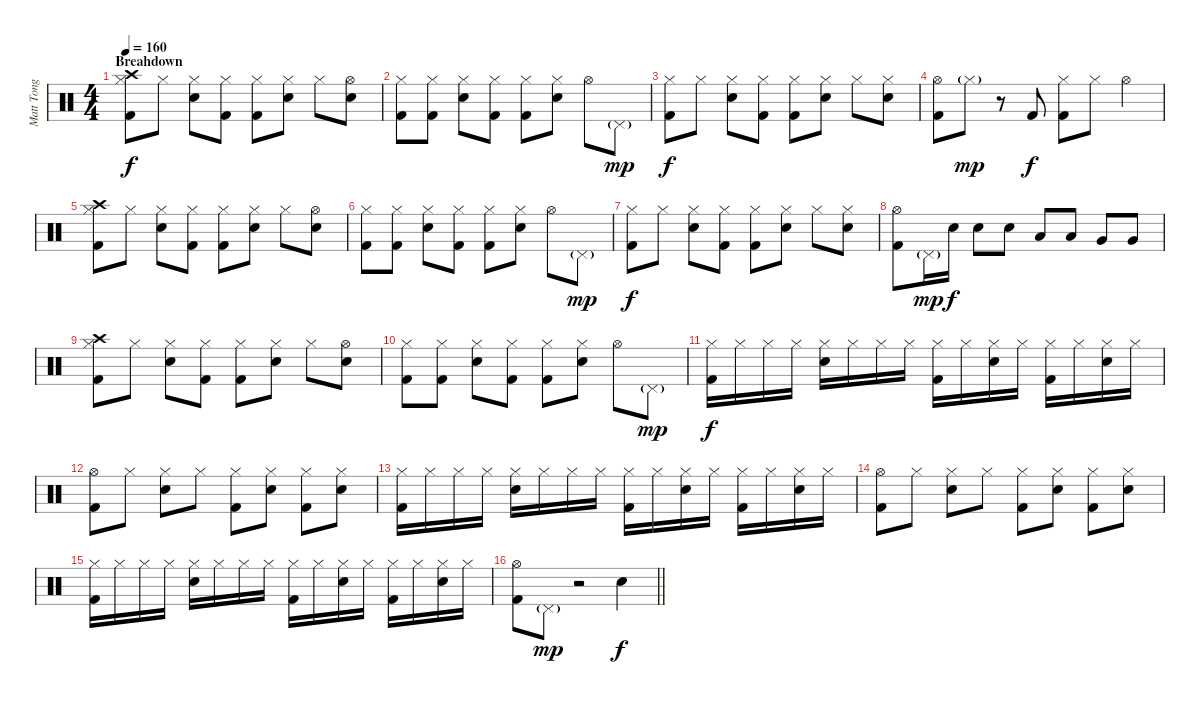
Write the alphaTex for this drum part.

\track ("Matt Tong" "Matt Tong") {instrument percussion}
\staff {score}
\articulation defaults
\ts (4 4)
\section ("" "Breahdown")
\tempo 160
\clef neutral
\ks c
("Crash high (hit)" "Hi-Hat (closed)" "Kick (hit) 2").8{dy f} "Hi-Hat (closed)".8 ("Hi-Hat (closed)" "Electric Snare (hit)").8 ("Hi-Hat (closed)" "Kick (hit) 2").8 ("Hi-Hat (closed)" "Kick (hit) 2").8 ("Hi-Hat (closed)" "Electric Snare (hit)").8 "Hi-Hat (closed)".8 ("Hi-Hat (open)" "Electric Snare (hit)").8 |
("Hi-Hat (closed)" "Kick (hit) 2").8 ("Hi-Hat (closed)" "Kick (hit) 2").8 ("Hi-Hat (closed)" "Electric Snare (hit)").8 ("Hi-Hat (closed)" "Kick (hit) 2").8 ("Hi-Hat (closed)" "Kick (hit) 2").8 ("Hi-Hat (closed)" "Electric Snare (hit)").8 "Hi-Hat (open)".8 "Pedal Hi-Hat (hit)"{g}.8{dy mp} |
("Hi-Hat (closed)" "Kick (hit) 2").8{dy f} "Hi-Hat (closed)".8 ("Hi-Hat (closed)" "Electric Snare (hit)").8 ("Hi-Hat (closed)" "Kick (hit) 2").8 ("Hi-Hat (closed)" "Kick (hit) 2").8 ("Hi-Hat (closed)" "Electric Snare (hit)").8 "Hi-Hat (closed)".8 ("Hi-Hat (closed)" "Electric Snare (hit)").8 |
("Hi-Hat (open)" "Kick (hit) 2").8 "Hi-Hat (closed)"{g}.8{dy mp} r.8 "Kick (hit) 2".8{dy f} ("Hi-Hat (closed)" "Kick (hit) 2").8 "Hi-Hat (closed)".8 "Hi-Hat (open)".4 |
("Crash high (hit)" "Hi-Hat (closed)" "Kick (hit) 2").8 "Hi-Hat (closed)".8 ("Hi-Hat (closed)" "Electric Snare (hit)").8 ("Hi-Hat (closed)" "Kick (hit) 2").8 ("Hi-Hat (closed)" "Kick (hit) 2").8 ("Hi-Hat (closed)" "Electric Snare (hit)").8 "Hi-Hat (closed)".8 ("Hi-Hat (open)" "Electric Snare (hit)").8 |
("Hi-Hat (closed)" "Kick (hit) 2").8 ("Hi-Hat (closed)" "Kick (hit) 2").8 ("Hi-Hat (closed)" "Electric Snare (hit)").8 ("Hi-Hat (closed)" "Kick (hit) 2").8 ("Hi-Hat (closed)" "Kick (hit) 2").8 ("Hi-Hat (closed)" "Electric Snare (hit)").8 "Hi-Hat (open)".8 "Pedal Hi-Hat (hit)"{g}.8{dy mp} |
("Hi-Hat (closed)" "Kick (hit) 2").8{dy f} "Hi-Hat (closed)".8 ("Hi-Hat (closed)" "Electric Snare (hit)").8 ("Hi-Hat (closed)" "Kick (hit) 2").8 ("Hi-Hat (closed)" "Kick (hit) 2").8 ("Hi-Hat (closed)" "Electric Snare (hit)").8 "Hi-Hat (closed)".8 ("Hi-Hat (closed)" "Electric Snare (hit)").8 |
("Hi-Hat (open)" "Kick (hit) 2").8 "Pedal Hi-Hat (hit)"{g}.16{dy mp} "Electric Snare (hit)".16{dy f} "Electric Snare (hit)".8 "Electric Snare (hit)".8 "Low Tom (hit)".8 "Low Tom (hit)".8 "Very Low Tom (hit)".8 "Very Low Tom (hit)".8 |
("Crash high (hit)" "Hi-Hat (closed)" "Kick (hit) 2").8 "Hi-Hat (closed)".8 ("Hi-Hat (closed)" "Electric Snare (hit)").8 ("Hi-Hat (closed)" "Kick (hit) 2").8 ("Hi-Hat (closed)" "Kick (hit) 2").8 ("Hi-Hat (closed)" "Electric Snare (hit)").8 "Hi-Hat (closed)".8 ("Hi-Hat (open)" "Electric Snare (hit)").8 |
("Hi-Hat (closed)" "Kick (hit) 2").8 ("Hi-Hat (closed)" "Kick (hit) 2").8 ("Hi-Hat (closed)" "Electric Snare (hit)").8 ("Hi-Hat (closed)" "Kick (hit) 2").8 ("Hi-Hat (closed)" "Kick (hit) 2").8 ("Hi-Hat (closed)" "Electric Snare (hit)").8 "Hi-Hat (open)".8 "Pedal Hi-Hat (hit)"{g}.8{dy mp} |
("Hi-Hat (closed)" "Kick (hit) 2").16{dy f} "Hi-Hat (closed)".16 "Hi-Hat (closed)".16 "Hi-Hat (closed)".16 ("Hi-Hat (closed)" "Electric Snare (hit)").16 "Hi-Hat (closed)".16 "Hi-Hat (closed)".16 "Hi-Hat (closed)".16 ("Hi-Hat (closed)" "Kick (hit) 2").16 "Hi-Hat (closed)".16 ("Hi-Hat (closed)" "Electric Snare (hit)").16 "Hi-Hat (closed)".16 ("Hi-Hat (closed)" "Kick (hit) 2").16 "Hi-Hat (closed)".16 ("Hi-Hat (closed)" "Electric Snare (hit)").16 "Hi-Hat (closed)".16 |
("Hi-Hat (open)" "Kick (hit) 2").8 "Hi-Hat (closed)".8 ("Hi-Hat (closed)" "Electric Snare (hit)").8 "Hi-Hat (closed)".8 ("Hi-Hat (closed)" "Kick (hit) 2").8 ("Hi-Hat (closed)" "Electric Snare (hit)").8 ("Hi-Hat (closed)" "Kick (hit) 2").8 ("Hi-Hat (closed)" "Electric Snare (hit)").8 |
("Hi-Hat (closed)" "Kick (hit) 2").16 "Hi-Hat (closed)".16 "Hi-Hat (closed)".16 "Hi-Hat (closed)".16 ("Hi-Hat (closed)" "Electric Snare (hit)").16 "Hi-Hat (closed)".16 "Hi-Hat (closed)".16 "Hi-Hat (closed)".16 ("Hi-Hat (closed)" "Kick (hit) 2").16 "Hi-Hat (closed)".16 ("Hi-Hat (closed)" "Electric Snare (hit)").16 "Hi-Hat (closed)".16 ("Hi-Hat (closed)" "Kick (hit) 2").16 "Hi-Hat (closed)".16 ("Hi-Hat (closed)" "Electric Snare (hit)").16 "Hi-Hat (closed)".16 |
("Hi-Hat (open)" "Kick (hit) 2").8 "Hi-Hat (closed)".8 ("Hi-Hat (closed)" "Electric Snare (hit)").8 "Hi-Hat (closed)".8 ("Hi-Hat (closed)" "Kick (hit) 2").8 ("Hi-Hat (closed)" "Electric Snare (hit)").8 ("Hi-Hat (closed)" "Kick (hit) 2").8 ("Hi-Hat (closed)" "Electric Snare (hit)").8 |
("Hi-Hat (closed)" "Kick (hit) 2").16 "Hi-Hat (closed)".16 "Hi-Hat (closed)".16 "Hi-Hat (closed)".16 ("Hi-Hat (closed)" "Electric Snare (hit)").16 "Hi-Hat (closed)".16 "Hi-Hat (closed)".16 "Hi-Hat (closed)".16 ("Hi-Hat (closed)" "Kick (hit) 2").16 "Hi-Hat (closed)".16 ("Hi-Hat (closed)" "Electric Snare (hit)").16 "Hi-Hat (closed)".16 ("Hi-Hat (closed)" "Kick (hit) 2").16 "Hi-Hat (closed)".16 ("Hi-Hat (closed)" "Electric Snare (hit)").16 "Hi-Hat (closed)".16 |
\barLineRight lightlight
("Hi-Hat (open)" "Kick (hit) 2").8 "Pedal Hi-Hat (hit)"{g}.8{dy mp} r.2 "Electric Snare (hit)".4{dy f}
